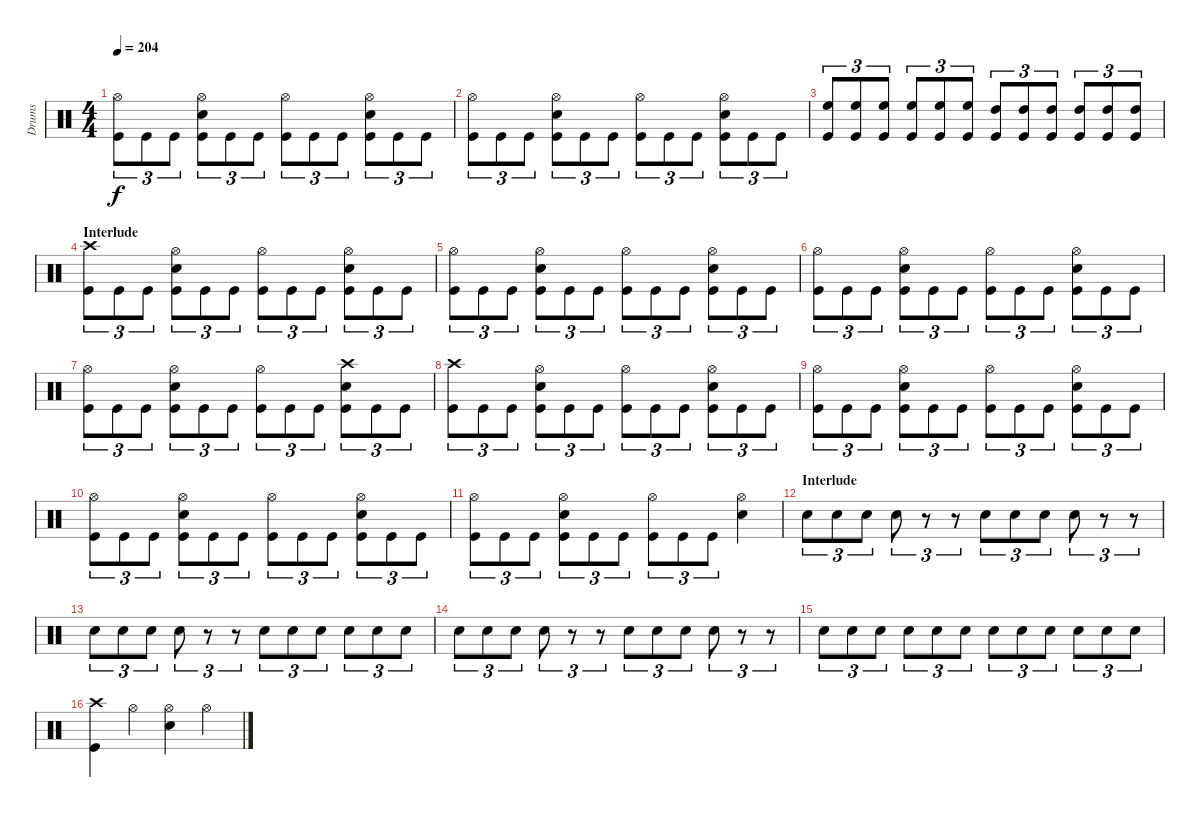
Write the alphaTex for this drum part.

\track ("Drums" "Drums") {instrument percussion}
\staff {score}
\articulation defaults
\ts (4 4)
\tempo 204
\clef neutral
\ks c
("Hi-Hat (open)" "Kick (hit)").8{tu (3 2) dy f} "Kick (hit)".8{tu (3 2)} "Kick (hit)".8{tu (3 2)} ("Hi-Hat (open)" "Snare (hit) 2" "Kick (hit)").8{tu (3 2)} "Kick (hit)".8{tu (3 2)} "Kick (hit)".8{tu (3 2)} ("Hi-Hat (open)" "Kick (hit)").8{tu (3 2)} "Kick (hit)".8{tu (3 2)} "Kick (hit)".8{tu (3 2)} ("Hi-Hat (open)" "Snare (hit) 2" "Kick (hit)").8{tu (3 2)} "Kick (hit)".8{tu (3 2)} "Kick (hit)".8{tu (3 2)} |
("Hi-Hat (open)" "Kick (hit)").8{tu (3 2)} "Kick (hit)".8{tu (3 2)} "Kick (hit)".8{tu (3 2)} ("Hi-Hat (open)" "Snare (hit) 2" "Kick (hit)").8{tu (3 2)} "Kick (hit)".8{tu (3 2)} "Kick (hit)".8{tu (3 2)} ("Hi-Hat (open)" "Kick (hit)").8{tu (3 2)} "Kick (hit)".8{tu (3 2)} "Kick (hit)".8{tu (3 2)} ("Hi-Hat (open)" "Snare (hit) 2" "Kick (hit)").8{tu (3 2)} "Kick (hit)".8{tu (3 2)} "Kick (hit)".8{tu (3 2)} |
("High Floor Tom (hit)" "Kick (hit)").8{tu (3 2)} ("High Floor Tom (hit)" "Kick (hit)").8{tu (3 2)} ("High Floor Tom (hit)" "Kick (hit)").8{tu (3 2)} ("High Floor Tom (hit)" "Kick (hit)").8{tu (3 2)} ("High Floor Tom (hit)" "Kick (hit)").8{tu (3 2)} ("High Floor Tom (hit)" "Kick (hit)").8{tu (3 2)} ("High Tom (hit)" "Kick (hit)").8{tu (3 2)} ("High Tom (hit)" "Kick (hit)").8{tu (3 2)} ("High Tom (hit)" "Kick (hit)").8{tu (3 2)} ("High Tom (hit)" "Kick (hit)").8{tu (3 2)} ("High Tom (hit)" "Kick (hit)").8{tu (3 2)} ("High Tom (hit)" "Kick (hit)").8{tu (3 2)} |
\section ("" "Interlude")
("Crash high (hit)" "Kick (hit)").8{tu (3 2)} "Kick (hit)".8{tu (3 2)} "Kick (hit)".8{tu (3 2)} ("Hi-Hat (open)" "Snare (hit) 2" "Kick (hit)").8{tu (3 2)} "Kick (hit)".8{tu (3 2)} "Kick (hit)".8{tu (3 2)} ("Hi-Hat (open)" "Kick (hit)").8{tu (3 2)} "Kick (hit)".8{tu (3 2)} "Kick (hit)".8{tu (3 2)} ("Hi-Hat (open)" "Snare (hit) 2" "Kick (hit)").8{tu (3 2)} "Kick (hit)".8{tu (3 2)} "Kick (hit)".8{tu (3 2)} |
("Hi-Hat (open)" "Kick (hit)").8{tu (3 2)} "Kick (hit)".8{tu (3 2)} "Kick (hit)".8{tu (3 2)} ("Hi-Hat (open)" "Snare (hit) 2" "Kick (hit)").8{tu (3 2)} "Kick (hit)".8{tu (3 2)} "Kick (hit)".8{tu (3 2)} ("Hi-Hat (open)" "Kick (hit)").8{tu (3 2)} "Kick (hit)".8{tu (3 2)} "Kick (hit)".8{tu (3 2)} ("Hi-Hat (open)" "Snare (hit) 2" "Kick (hit)").8{tu (3 2)} "Kick (hit)".8{tu (3 2)} "Kick (hit)".8{tu (3 2)} |
("Hi-Hat (open)" "Kick (hit)").8{tu (3 2)} "Kick (hit)".8{tu (3 2)} "Kick (hit)".8{tu (3 2)} ("Hi-Hat (open)" "Snare (hit) 2" "Kick (hit)").8{tu (3 2)} "Kick (hit)".8{tu (3 2)} "Kick (hit)".8{tu (3 2)} ("Hi-Hat (open)" "Kick (hit)").8{tu (3 2)} "Kick (hit)".8{tu (3 2)} "Kick (hit)".8{tu (3 2)} ("Hi-Hat (open)" "Snare (hit) 2" "Kick (hit)").8{tu (3 2)} "Kick (hit)".8{tu (3 2)} "Kick (hit)".8{tu (3 2)} |
("Hi-Hat (open)" "Kick (hit)").8{tu (3 2)} "Kick (hit)".8{tu (3 2)} "Kick (hit)".8{tu (3 2)} ("Hi-Hat (open)" "Snare (hit) 2" "Kick (hit)").8{tu (3 2)} "Kick (hit)".8{tu (3 2)} "Kick (hit)".8{tu (3 2)} ("Hi-Hat (open)" "Kick (hit)").8{tu (3 2)} "Kick (hit)".8{tu (3 2)} "Kick (hit)".8{tu (3 2)} ("Crash high (hit)" "Snare (hit) 2" "Kick (hit)").8{tu (3 2)} "Kick (hit)".8{tu (3 2)} "Kick (hit)".8{tu (3 2)} |
("Crash high (hit)" "Kick (hit)").8{tu (3 2)} "Kick (hit)".8{tu (3 2)} "Kick (hit)".8{tu (3 2)} ("Hi-Hat (open)" "Snare (hit) 2" "Kick (hit)").8{tu (3 2)} "Kick (hit)".8{tu (3 2)} "Kick (hit)".8{tu (3 2)} ("Hi-Hat (open)" "Kick (hit)").8{tu (3 2)} "Kick (hit)".8{tu (3 2)} "Kick (hit)".8{tu (3 2)} ("Hi-Hat (open)" "Snare (hit) 2" "Kick (hit)").8{tu (3 2)} "Kick (hit)".8{tu (3 2)} "Kick (hit)".8{tu (3 2)} |
("Hi-Hat (open)" "Kick (hit)").8{tu (3 2)} "Kick (hit)".8{tu (3 2)} "Kick (hit)".8{tu (3 2)} ("Hi-Hat (open)" "Snare (hit) 2" "Kick (hit)").8{tu (3 2)} "Kick (hit)".8{tu (3 2)} "Kick (hit)".8{tu (3 2)} ("Hi-Hat (open)" "Kick (hit)").8{tu (3 2)} "Kick (hit)".8{tu (3 2)} "Kick (hit)".8{tu (3 2)} ("Hi-Hat (open)" "Snare (hit) 2" "Kick (hit)").8{tu (3 2)} "Kick (hit)".8{tu (3 2)} "Kick (hit)".8{tu (3 2)} |
("Hi-Hat (open)" "Kick (hit)").8{tu (3 2)} "Kick (hit)".8{tu (3 2)} "Kick (hit)".8{tu (3 2)} ("Hi-Hat (open)" "Snare (hit) 2" "Kick (hit)").8{tu (3 2)} "Kick (hit)".8{tu (3 2)} "Kick (hit)".8{tu (3 2)} ("Hi-Hat (open)" "Kick (hit)").8{tu (3 2)} "Kick (hit)".8{tu (3 2)} "Kick (hit)".8{tu (3 2)} ("Hi-Hat (open)" "Snare (hit) 2" "Kick (hit)").8{tu (3 2)} "Kick (hit)".8{tu (3 2)} "Kick (hit)".8{tu (3 2)} |
("Hi-Hat (open)" "Kick (hit)").8{tu (3 2)} "Kick (hit)".8{tu (3 2)} "Kick (hit)".8{tu (3 2)} ("Hi-Hat (open)" "Snare (hit) 2" "Kick (hit)").8{tu (3 2)} "Kick (hit)".8{tu (3 2)} "Kick (hit)".8{tu (3 2)} ("Hi-Hat (open)" "Kick (hit)").8{tu (3 2)} "Kick (hit)".8{tu (3 2)} "Kick (hit)".8{tu (3 2)} ("Hi-Hat (open)" "Snare (hit) 2").4 |
\section ("" "Interlude")
"Snare (hit) 2".8{tu (3 2)} "Snare (hit) 2".8{tu (3 2)} "Snare (hit) 2".8{tu (3 2)} "Snare (hit) 2".8{tu (3 2)} r.8{tu (3 2)} r.8{tu (3 2)} "Snare (hit) 2".8{tu (3 2)} "Snare (hit) 2".8{tu (3 2)} "Snare (hit) 2".8{tu (3 2)} "Snare (hit) 2".8{tu (3 2)} r.8{tu (3 2)} r.8{tu (3 2)} |
"Snare (hit) 2".8{tu (3 2)} "Snare (hit) 2".8{tu (3 2)} "Snare (hit) 2".8{tu (3 2)} "Snare (hit) 2".8{tu (3 2)} r.8{tu (3 2)} r.8{tu (3 2)} "Snare (hit) 2".8{tu (3 2)} "Snare (hit) 2".8{tu (3 2)} "Snare (hit) 2".8{tu (3 2)} "Snare (hit) 2".8{tu (3 2)} "Snare (hit) 2".8{tu (3 2)} "Snare (hit) 2".8{tu (3 2)} |
"Snare (hit) 2".8{tu (3 2)} "Snare (hit) 2".8{tu (3 2)} "Snare (hit) 2".8{tu (3 2)} "Snare (hit) 2".8{tu (3 2)} r.8{tu (3 2)} r.8{tu (3 2)} "Snare (hit) 2".8{tu (3 2)} "Snare (hit) 2".8{tu (3 2)} "Snare (hit) 2".8{tu (3 2)} "Snare (hit) 2".8{tu (3 2)} r.8{tu (3 2)} r.8{tu (3 2)} |
"Snare (hit) 2".8{tu (3 2)} "Snare (hit) 2".8{tu (3 2)} "Snare (hit) 2".8{tu (3 2)} "Snare (hit) 2".8{tu (3 2)} "Snare (hit) 2".8{tu (3 2)} "Snare (hit) 2".8{tu (3 2)} "Snare (hit) 2".8{tu (3 2)} "Snare (hit) 2".8{tu (3 2)} "Snare (hit) 2".8{tu (3 2)} "Snare (hit) 2".8{tu (3 2)} "Snare (hit) 2".8{tu (3 2)} "Snare (hit) 2".8{tu (3 2)} |
("Crash high (hit)" "Kick (hit)").4 "Hi-Hat (open)".4 ("Hi-Hat (open)" "Snare (hit) 2").4 "Hi-Hat (open)".4
